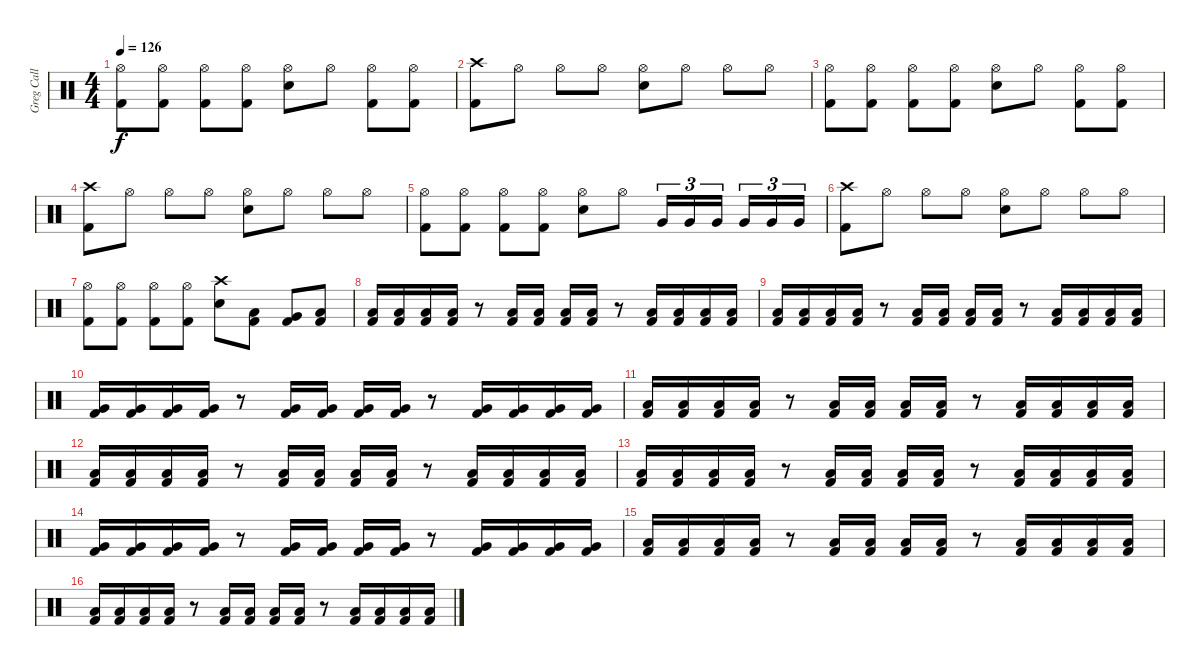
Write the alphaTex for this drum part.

\track ("Greg Call (Drums)" "Greg Call ") {instrument percussion}
\staff {score}
\articulation defaults
\ts (4 4)
\tempo 126
\clef neutral
\ks c
("Hi-Hat (open)" "Kick (hit) 2").8{dy f} ("Hi-Hat (open)" "Kick (hit) 2").8 ("Hi-Hat (open)" "Kick (hit) 2").8 ("Hi-Hat (open)" "Kick (hit) 2").8 ("Hi-Hat (open)" "Snare (hit) 2").8 "Hi-Hat (open)".8 ("Hi-Hat (open)" "Kick (hit) 2").8 ("Hi-Hat (open)" "Kick (hit) 2").8 |
("Crash high (hit)" "Kick (hit) 2").8 "Hi-Hat (open)".8 "Hi-Hat (open)".8 "Hi-Hat (open)".8 ("Hi-Hat (open)" "Snare (hit) 2").8 "Hi-Hat (open)".8 "Hi-Hat (open)".8 "Hi-Hat (open)".8 |
("Hi-Hat (open)" "Kick (hit) 2").8 ("Hi-Hat (open)" "Kick (hit) 2").8 ("Hi-Hat (open)" "Kick (hit) 2").8 ("Hi-Hat (open)" "Kick (hit) 2").8 ("Hi-Hat (open)" "Snare (hit) 2").8 "Hi-Hat (open)".8 ("Hi-Hat (open)" "Kick (hit) 2").8 ("Hi-Hat (open)" "Kick (hit) 2").8 |
("Crash high (hit)" "Kick (hit) 2").8 "Hi-Hat (open)".8 "Hi-Hat (open)".8 "Hi-Hat (open)".8 ("Hi-Hat (open)" "Snare (hit) 2").8 "Hi-Hat (open)".8 "Hi-Hat (open)".8 "Hi-Hat (open)".8 |
("Hi-Hat (open)" "Kick (hit) 2").8 ("Hi-Hat (open)" "Kick (hit) 2").8 ("Hi-Hat (open)" "Kick (hit) 2").8 ("Hi-Hat (open)" "Kick (hit) 2").8 ("Hi-Hat (open)" "Snare (hit) 2").8 "Hi-Hat (open)".8 "Very Low Tom (hit)".16{tu (3 2)} "Very Low Tom (hit)".16{tu (3 2)} "Very Low Tom (hit)".16{tu (3 2)} "Very Low Tom (hit)".16{tu (3 2)} "Very Low Tom (hit)".16{tu (3 2)} "Very Low Tom (hit)".16{tu (3 2)} |
("Crash high (hit)" "Kick (hit) 2").8 "Hi-Hat (open)".8 "Hi-Hat (open)".8 "Hi-Hat (open)".8 ("Hi-Hat (open)" "Snare (hit) 2").8 "Hi-Hat (open)".8 "Hi-Hat (open)".8 "Hi-Hat (open)".8 |
("Hi-Hat (open)" "Kick (hit) 2").8 ("Hi-Hat (open)" "Kick (hit) 2").8 ("Hi-Hat (open)" "Kick (hit) 2").8 ("Hi-Hat (open)" "Kick (hit) 2").8 ("Crash high (hit)" "Snare (hit) 2").8 ("Low Tom (hit)" "Kick (hit) 2").8 ("Very Low Tom (hit)" "Kick (hit) 2").8 ("Low Floor Tom (hit)" "Kick (hit) 2").8 |
("Low Floor Tom (hit)" "Kick (hit) 2").16{volume 14} ("Low Floor Tom (hit)" "Kick (hit) 2").16 ("Low Floor Tom (hit)" "Kick (hit) 2").16 ("Low Floor Tom (hit)" "Kick (hit) 2").16 r.8 ("Low Floor Tom (hit)" "Kick (hit) 2").16 ("Low Floor Tom (hit)" "Kick (hit) 2").16 ("Low Floor Tom (hit)" "Kick (hit) 2").16 ("Low Floor Tom (hit)" "Kick (hit) 2").16 r.8 ("Low Floor Tom (hit)" "Kick (hit) 2").16 ("Low Floor Tom (hit)" "Kick (hit) 2").16 ("Low Floor Tom (hit)" "Kick (hit) 2").16 ("Low Floor Tom (hit)" "Kick (hit) 2").16 |
("Low Floor Tom (hit)" "Kick (hit) 2").16 ("Low Floor Tom (hit)" "Kick (hit) 2").16 ("Low Floor Tom (hit)" "Kick (hit) 2").16 ("Low Floor Tom (hit)" "Kick (hit) 2").16 r.8 ("Low Floor Tom (hit)" "Kick (hit) 2").16 ("Low Floor Tom (hit)" "Kick (hit) 2").16 ("Low Floor Tom (hit)" "Kick (hit) 2").16 ("Low Floor Tom (hit)" "Kick (hit) 2").16 r.8 ("Low Floor Tom (hit)" "Kick (hit) 2").16 ("Low Floor Tom (hit)" "Kick (hit) 2").16 ("Low Floor Tom (hit)" "Kick (hit) 2").16 ("Low Floor Tom (hit)" "Kick (hit) 2").16 |
("Very Low Tom (hit)" "Kick (hit) 2").16 ("Very Low Tom (hit)" "Kick (hit) 2").16 ("Very Low Tom (hit)" "Kick (hit) 2").16 ("Very Low Tom (hit)" "Kick (hit) 2").16 r.8 ("Very Low Tom (hit)" "Kick (hit) 2").16 ("Very Low Tom (hit)" "Kick (hit) 2").16 ("Very Low Tom (hit)" "Kick (hit) 2").16 ("Very Low Tom (hit)" "Kick (hit) 2").16 r.8 ("Very Low Tom (hit)" "Kick (hit) 2").16 ("Very Low Tom (hit)" "Kick (hit) 2").16 ("Very Low Tom (hit)" "Kick (hit) 2").16 ("Very Low Tom (hit)" "Kick (hit) 2").16 |
("Low Tom (hit)" "Kick (hit) 2").16 ("Low Tom (hit)" "Kick (hit) 2").16 ("Low Tom (hit)" "Kick (hit) 2").16 ("Low Tom (hit)" "Kick (hit) 2").16 r.8 ("Low Tom (hit)" "Kick (hit) 2").16 ("Low Tom (hit)" "Kick (hit) 2").16 ("Low Tom (hit)" "Kick (hit) 2").16 ("Low Tom (hit)" "Kick (hit) 2").16 r.8 ("Low Tom (hit)" "Kick (hit) 2").16 ("Low Tom (hit)" "Kick (hit) 2").16 ("Low Tom (hit)" "Kick (hit) 2").16 ("Low Tom (hit)" "Kick (hit) 2").16 |
("Low Floor Tom (hit)" "Kick (hit) 2").16{volume 14} ("Low Floor Tom (hit)" "Kick (hit) 2").16 ("Low Floor Tom (hit)" "Kick (hit) 2").16 ("Low Floor Tom (hit)" "Kick (hit) 2").16 r.8 ("Low Floor Tom (hit)" "Kick (hit) 2").16 ("Low Floor Tom (hit)" "Kick (hit) 2").16 ("Low Floor Tom (hit)" "Kick (hit) 2").16 ("Low Floor Tom (hit)" "Kick (hit) 2").16 r.8 ("Low Floor Tom (hit)" "Kick (hit) 2").16 ("Low Floor Tom (hit)" "Kick (hit) 2").16 ("Low Floor Tom (hit)" "Kick (hit) 2").16 ("Low Floor Tom (hit)" "Kick (hit) 2").16 |
("Low Floor Tom (hit)" "Kick (hit) 2").16 ("Low Floor Tom (hit)" "Kick (hit) 2").16 ("Low Floor Tom (hit)" "Kick (hit) 2").16 ("Low Floor Tom (hit)" "Kick (hit) 2").16 r.8 ("Low Floor Tom (hit)" "Kick (hit) 2").16 ("Low Floor Tom (hit)" "Kick (hit) 2").16 ("Low Floor Tom (hit)" "Kick (hit) 2").16 ("Low Floor Tom (hit)" "Kick (hit) 2").16 r.8 ("Low Floor Tom (hit)" "Kick (hit) 2").16 ("Low Floor Tom (hit)" "Kick (hit) 2").16 ("Low Floor Tom (hit)" "Kick (hit) 2").16 ("Low Floor Tom (hit)" "Kick (hit) 2").16 |
("Very Low Tom (hit)" "Kick (hit) 2").16 ("Very Low Tom (hit)" "Kick (hit) 2").16 ("Very Low Tom (hit)" "Kick (hit) 2").16 ("Very Low Tom (hit)" "Kick (hit) 2").16 r.8 ("Very Low Tom (hit)" "Kick (hit) 2").16 ("Very Low Tom (hit)" "Kick (hit) 2").16 ("Very Low Tom (hit)" "Kick (hit) 2").16 ("Very Low Tom (hit)" "Kick (hit) 2").16 r.8 ("Very Low Tom (hit)" "Kick (hit) 2").16 ("Very Low Tom (hit)" "Kick (hit) 2").16 ("Very Low Tom (hit)" "Kick (hit) 2").16 ("Very Low Tom (hit)" "Kick (hit) 2").16 |
("Low Tom (hit)" "Kick (hit) 2").16 ("Low Tom (hit)" "Kick (hit) 2").16 ("Low Tom (hit)" "Kick (hit) 2").16 ("Low Tom (hit)" "Kick (hit) 2").16 r.8 ("Low Tom (hit)" "Kick (hit) 2").16 ("Low Tom (hit)" "Kick (hit) 2").16 ("Low Tom (hit)" "Kick (hit) 2").16 ("Low Tom (hit)" "Kick (hit) 2").16 r.8 ("Low Tom (hit)" "Kick (hit) 2").16 ("Low Tom (hit)" "Kick (hit) 2").16 ("Low Tom (hit)" "Kick (hit) 2").16 ("Low Tom (hit)" "Kick (hit) 2").16 |
("Low Floor Tom (hit)" "Kick (hit) 2").16{volume 14} ("Low Floor Tom (hit)" "Kick (hit) 2").16 ("Low Floor Tom (hit)" "Kick (hit) 2").16 ("Low Floor Tom (hit)" "Kick (hit) 2").16 r.8 ("Low Floor Tom (hit)" "Kick (hit) 2").16 ("Low Floor Tom (hit)" "Kick (hit) 2").16 ("Low Floor Tom (hit)" "Kick (hit) 2").16 ("Low Floor Tom (hit)" "Kick (hit) 2").16 r.8 ("Low Floor Tom (hit)" "Kick (hit) 2").16 ("Low Floor Tom (hit)" "Kick (hit) 2").16 ("Low Floor Tom (hit)" "Kick (hit) 2").16 ("Low Floor Tom (hit)" "Kick (hit) 2").16
